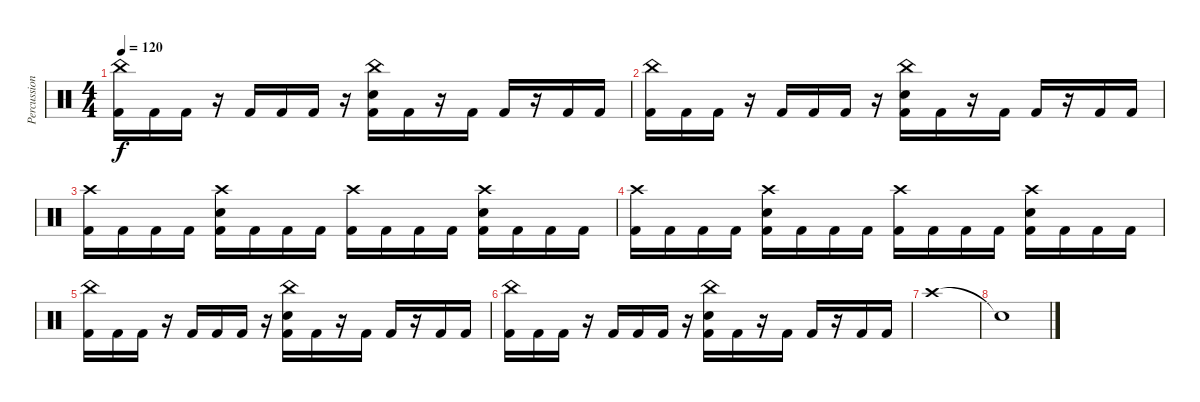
\track ("Percussion" "Percussion") {instrument percussion}
\staff {score}
\articulation defaults
\ts (4 4)
\tempo 120
\clef neutral
\ks c
("China (hit)" "Kick (hit) 2").16{dy f} "Kick (hit) 2".16 "Kick (hit) 2".16 r.16 "Kick (hit) 2".16 "Kick (hit) 2".16 "Kick (hit) 2".16 r.16 ("Snare (hit) 2" "China (hit)" "Kick (hit) 2").16 "Kick (hit) 2".16 r.16 "Kick (hit) 2".16 "Kick (hit) 2".16 r.16 "Kick (hit) 2".16 "Kick (hit) 2".16 |
("China (hit)" "Kick (hit) 2").16 "Kick (hit) 2".16 "Kick (hit) 2".16 r.16 "Kick (hit) 2".16 "Kick (hit) 2".16 "Kick (hit) 2".16 r.16 ("Snare (hit) 2" "China (hit)" "Kick (hit) 2").16 "Kick (hit) 2".16 r.16 "Kick (hit) 2".16 "Kick (hit) 2".16 r.16 "Kick (hit) 2".16 "Kick (hit) 2".16 |
("Crash high (hit)" "Kick (hit) 2").16 "Kick (hit) 2".16 "Kick (hit) 2".16 "Kick (hit) 2".16 ("Snare (hit) 2" "Crash high (hit)" "Kick (hit) 2").16 "Kick (hit) 2".16 "Kick (hit) 2".16 "Kick (hit) 2".16 ("Crash high (hit)" "Kick (hit) 2").16 "Kick (hit) 2".16 "Kick (hit) 2".16 "Kick (hit) 2".16 ("Snare (hit) 2" "Crash high (hit)" "Kick (hit) 2").16 "Kick (hit) 2".16 "Kick (hit) 2".16 "Kick (hit) 2".16 |
("Crash high (hit)" "Kick (hit) 2").16 "Kick (hit) 2".16 "Kick (hit) 2".16 "Kick (hit) 2".16 ("Snare (hit) 2" "Crash high (hit)" "Kick (hit) 2").16 "Kick (hit) 2".16 "Kick (hit) 2".16 "Kick (hit) 2".16 ("Crash high (hit)" "Kick (hit) 2").16 "Kick (hit) 2".16 "Kick (hit) 2".16 "Kick (hit) 2".16 ("Snare (hit) 2" "Crash high (hit)" "Kick (hit) 2").16 "Kick (hit) 2".16 "Kick (hit) 2".16 "Kick (hit) 2".16 |
("China (hit)" "Kick (hit) 2").16 "Kick (hit) 2".16 "Kick (hit) 2".16 r.16 "Kick (hit) 2".16 "Kick (hit) 2".16 "Kick (hit) 2".16 r.16 ("Snare (hit) 2" "China (hit)" "Kick (hit) 2").16 "Kick (hit) 2".16 r.16 "Kick (hit) 2".16 "Kick (hit) 2".16 r.16 "Kick (hit) 2".16 "Kick (hit) 2".16 |
("China (hit)" "Kick (hit) 2").16 "Kick (hit) 2".16 "Kick (hit) 2".16 r.16 "Kick (hit) 2".16 "Kick (hit) 2".16 "Kick (hit) 2".16 r.16 ("Snare (hit) 2" "China (hit)" "Kick (hit) 2").16 "Kick (hit) 2".16 r.16 "Kick (hit) 2".16 "Kick (hit) 2".16 r.16 "Kick (hit) 2".16 "Kick (hit) 2".16 |
"Crash high (hit)".1 |
"Snare (hit)"{t}.1
